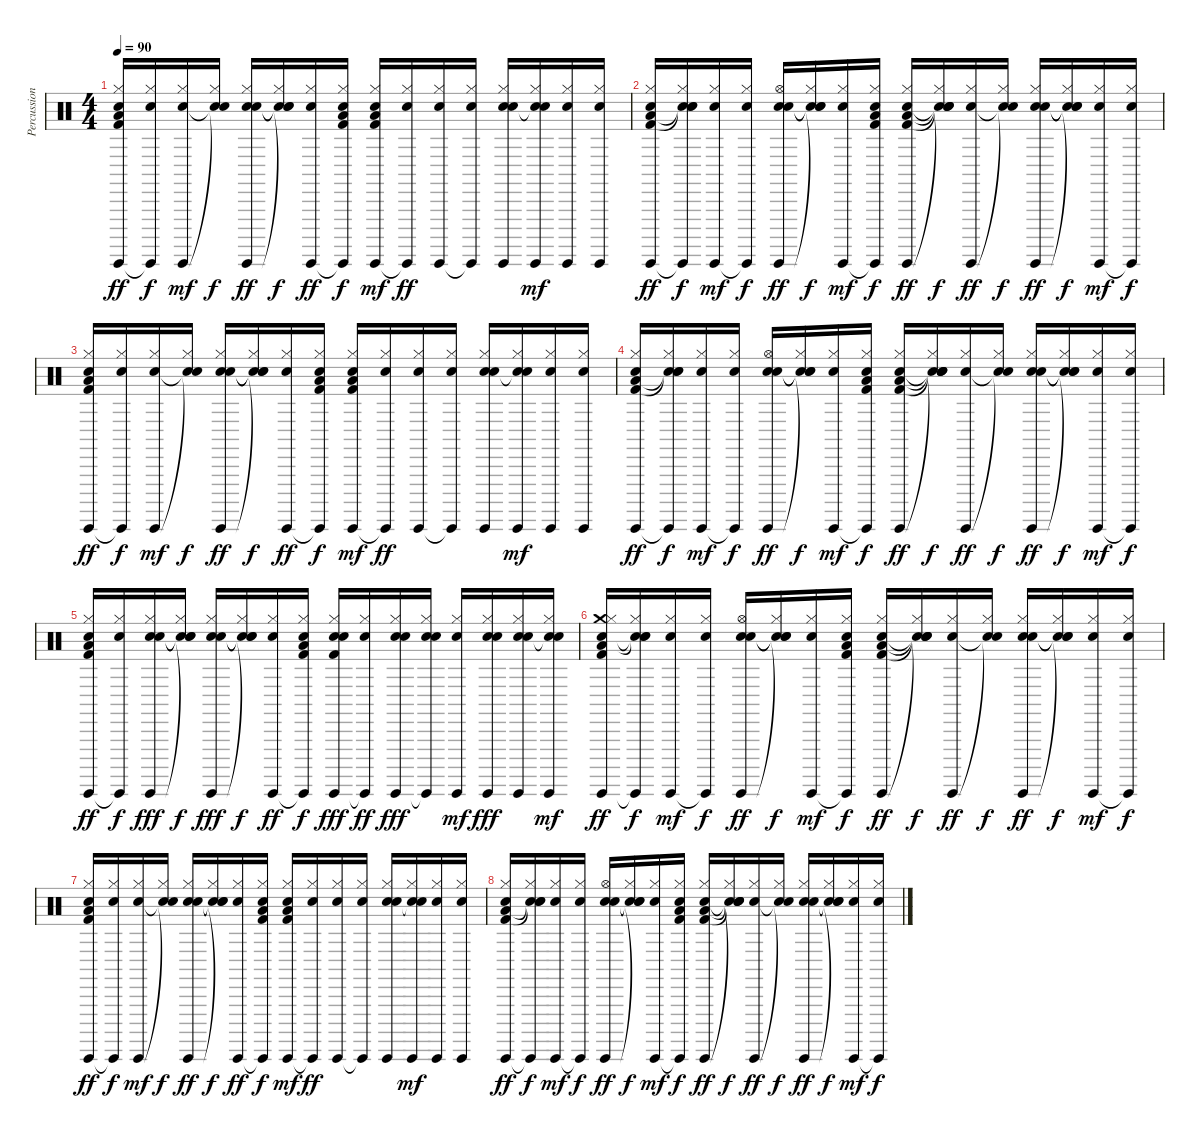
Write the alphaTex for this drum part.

\track ("Percussion" "Percussion") {instrument percussion}
\staff {score}
\articulation defaults
\ts (4 4)
\tempo 90
\clef neutral
\ks c
("Guiro (hit)" "Hi-Hat (closed)" "Hand Clap (hit)" "Low Floor Tom (hit)" "Kick (hit) 2").16{dy ff} ("Guiro (hit)"{t} "Hi-Hat (closed)" "Hand Clap (hit)").16{dy f} ("Guiro (hit)" "Hi-Hat (closed)" "Hand Clap (hit)").16{dy mf} ("Snare (hit)"{t} "Hi-Hat (closed)" "Snare (hit)"{t}).16{dy f} ("Guiro (hit)" "Hi-Hat (closed)" "Hand Clap (hit)" "Snare (hit) 2").16{dy ff} ("Snare (hit)"{t} "Hi-Hat (closed)" "Snare (hit)"{t} "Snare (hit)"{t}).16{dy f} ("Guiro (hit)" "Hi-Hat (closed)" "Hand Clap (hit)").16{dy ff} ("Guiro (hit)"{t} "Hi-Hat (closed)" "Hand Clap (hit)" "Low Floor Tom (hit)" "Kick (hit) 2").16{dy f} ("Guiro (hit)" "Hi-Hat (closed)" "Hand Clap (hit)" "Low Floor Tom (hit)" "Kick (hit) 2").16{dy mf} ("Guiro (hit)"{t} "Hi-Hat (closed)" "Hand Clap (hit)").16{dy ff} ("Guiro (hit)" "Hi-Hat (closed)" "Hand Clap (hit)").16 ("Guiro (hit)"{t} "Hi-Hat (closed)" "Hand Clap (hit)").16 ("Guiro (hit)" "Hi-Hat (closed)" "Hand Clap (hit)" "Snare (hit) 2").16 ("Guiro (hit)" "Hi-Hat (closed)" "Hand Clap (hit)" "Snare (hit)"{t}).16{dy mf} ("Guiro (hit)" "Hi-Hat (closed)" "Hand Clap (hit)").16 ("Guiro (hit)" "Hi-Hat (closed)" "Hand Clap (hit)").16 |
("Guiro (hit)" "Hi-Hat (closed)" "Hand Clap (hit)" "Low Floor Tom (hit)" "Kick (hit) 2").16{dy ff} ("Guiro (hit)"{t} "Hi-Hat (closed)" "Hand Clap (hit)" "Snare (hit)"{t} "Snare (hit)"{t}).16{dy f} ("Guiro (hit)" "Hi-Hat (closed)" "Hand Clap (hit)").16{dy mf} ("Guiro (hit)"{t} "Hi-Hat (closed)" "Hand Clap (hit)").16{dy f} ("Guiro (hit)" "Hi-Hat (open)" "Hand Clap (hit)" "Snare (hit) 2").16{dy ff} ("Snare (hit)"{t} "Hi-Hat (closed)" "Snare (hit)"{t} "Snare (hit)"{t}).16{dy f} ("Guiro (hit)" "Hi-Hat (closed)" "Hand Clap (hit)").16{dy mf} ("Guiro (hit)"{t} "Hi-Hat (closed)" "Hand Clap (hit)" "Low Floor Tom (hit)" "Kick (hit) 2").16{dy f} ("Guiro (hit)" "Hi-Hat (closed)" "Hand Clap (hit)" "Low Floor Tom (hit)" "Kick (hit) 2").16{dy ff} ("Snare (hit)"{t} "Hi-Hat (closed)" "Snare (hit)"{t} "Snare (hit)"{t} "Snare (hit)"{t}).16{dy f} ("Guiro (hit)" "Hi-Hat (closed)" "Hand Clap (hit)").16{dy ff} ("Snare (hit)"{t} "Hi-Hat (closed)" "Snare (hit)"{t}).16{dy f} ("Guiro (hit)" "Hi-Hat (closed)" "Hand Clap (hit)" "Snare (hit) 2").16{dy ff} ("Snare (hit)"{t} "Hi-Hat (closed)" "Snare (hit)"{t} "Snare (hit)"{t}).16{dy f} ("Guiro (hit)" "Hi-Hat (closed)" "Hand Clap (hit)").16{dy mf} ("Guiro (hit)"{t} "Hi-Hat (closed)" "Hand Clap (hit)").16{dy f} |
("Guiro (hit)" "Hi-Hat (closed)" "Hand Clap (hit)" "Low Floor Tom (hit)" "Kick (hit) 2").16{dy ff} ("Guiro (hit)"{t} "Hi-Hat (closed)" "Hand Clap (hit)").16{dy f} ("Guiro (hit)" "Hi-Hat (closed)" "Hand Clap (hit)").16{dy mf} ("Snare (hit)"{t} "Hi-Hat (closed)" "Snare (hit)"{t}).16{dy f} ("Guiro (hit)" "Hi-Hat (closed)" "Hand Clap (hit)" "Snare (hit) 2").16{dy ff} ("Snare (hit)"{t} "Hi-Hat (closed)" "Snare (hit)"{t} "Snare (hit)"{t}).16{dy f} ("Guiro (hit)" "Hi-Hat (closed)" "Hand Clap (hit)").16{dy ff} ("Guiro (hit)"{t} "Hi-Hat (closed)" "Hand Clap (hit)" "Low Floor Tom (hit)" "Kick (hit) 2").16{dy f} ("Guiro (hit)" "Hi-Hat (closed)" "Hand Clap (hit)" "Low Floor Tom (hit)" "Kick (hit) 2").16{dy mf} ("Guiro (hit)"{t} "Hi-Hat (closed)" "Hand Clap (hit)").16{dy ff} ("Guiro (hit)" "Hi-Hat (closed)" "Hand Clap (hit)").16 ("Guiro (hit)"{t} "Hi-Hat (closed)" "Hand Clap (hit)").16 ("Guiro (hit)" "Hi-Hat (closed)" "Hand Clap (hit)" "Snare (hit) 2").16 ("Guiro (hit)" "Hi-Hat (closed)" "Hand Clap (hit)" "Snare (hit)"{t}).16{dy mf} ("Guiro (hit)" "Hi-Hat (closed)" "Hand Clap (hit)").16 ("Guiro (hit)" "Hi-Hat (closed)" "Hand Clap (hit)").16 |
("Guiro (hit)" "Hi-Hat (closed)" "Hand Clap (hit)" "Low Floor Tom (hit)" "Kick (hit) 2").16{dy ff} ("Guiro (hit)"{t} "Hi-Hat (closed)" "Hand Clap (hit)" "Snare (hit)"{t} "Snare (hit)"{t}).16{dy f} ("Guiro (hit)" "Hi-Hat (closed)" "Hand Clap (hit)").16{dy mf} ("Guiro (hit)"{t} "Hi-Hat (closed)" "Hand Clap (hit)").16{dy f} ("Guiro (hit)" "Hi-Hat (open)" "Hand Clap (hit)" "Snare (hit) 2").16{dy ff} ("Snare (hit)"{t} "Hi-Hat (closed)" "Snare (hit)"{t} "Snare (hit)"{t}).16{dy f} ("Guiro (hit)" "Hi-Hat (closed)" "Hand Clap (hit)").16{dy mf} ("Guiro (hit)"{t} "Hi-Hat (closed)" "Hand Clap (hit)" "Low Floor Tom (hit)" "Kick (hit) 2").16{dy f} ("Guiro (hit)" "Hi-Hat (closed)" "Hand Clap (hit)" "Low Floor Tom (hit)" "Kick (hit) 2").16{dy ff} ("Snare (hit)"{t} "Hi-Hat (closed)" "Snare (hit)"{t} "Snare (hit)"{t} "Snare (hit)"{t}).16{dy f} ("Guiro (hit)" "Hi-Hat (closed)" "Hand Clap (hit)").16{dy ff} ("Snare (hit)"{t} "Hi-Hat (closed)" "Snare (hit)"{t}).16{dy f} ("Guiro (hit)" "Hi-Hat (closed)" "Hand Clap (hit)" "Snare (hit) 2").16{dy ff} ("Snare (hit)"{t} "Hi-Hat (closed)" "Snare (hit)"{t} "Snare (hit)"{t}).16{dy f} ("Guiro (hit)" "Hi-Hat (closed)" "Hand Clap (hit)").16{dy mf} ("Guiro (hit)"{t} "Hi-Hat (closed)" "Hand Clap (hit)").16{dy f} |
("Guiro (hit)" "Hi-Hat (closed)" "Hand Clap (hit)" "Low Floor Tom (hit)" "Kick (hit) 2").16{dy ff} ("Guiro (hit)"{t} "Hi-Hat (closed)" "Hand Clap (hit)").16{dy f} ("Guiro (hit)" "Hi-Hat (closed)" "Hand Clap (hit)" "Snare (hit) 2").16{dy fff} ("Snare (hit)"{t} "Hi-Hat (closed)" "Snare (hit)"{t} "Snare (hit)"{t}).16{dy f} ("Guiro (hit)" "Hi-Hat (closed)" "Hand Clap (hit)" "Snare (hit) 2").16{dy fff} ("Snare (hit)"{t} "Hi-Hat (closed)" "Snare (hit)"{t} "Snare (hit)"{t}).16{dy f} ("Guiro (hit)" "Hi-Hat (closed)" "Hand Clap (hit)").16{dy ff} ("Guiro (hit)"{t} "Hi-Hat (closed)" "Hand Clap (hit)" "Low Floor Tom (hit)" "Kick (hit) 2").16{dy f} ("Guiro (hit)" "Hi-Hat (closed)" "Hand Clap (hit)" "Snare (hit) 2" "Kick (hit) 2").16{dy fff} ("Guiro (hit)"{t} "Hi-Hat (closed)" "Hand Clap (hit)").16{dy ff} ("Guiro (hit)" "Hi-Hat (closed)" "Hand Clap (hit)" "Snare (hit) 2").16{dy fff} ("Guiro (hit)"{t} "Hi-Hat (closed)" "Hand Clap (hit)" "Snare (hit) 2").16 ("Guiro (hit)" "Hi-Hat (closed)" "Hand Clap (hit)").16{dy mf} ("Guiro (hit)" "Hi-Hat (closed)" "Hand Clap (hit)" "Snare (hit) 2").16{dy fff} ("Guiro (hit)" "Hi-Hat (closed)" "Hand Clap (hit)" "Snare (hit) 2").16 ("Guiro (hit)" "Hi-Hat (closed)" "Hand Clap (hit)" "Snare (hit)"{t}).16{dy mf} |
("Guiro (hit)" "Crash medium (hit)" "Hi-Hat (closed)" "Hand Clap (hit)" "Low Floor Tom (hit)" "Kick (hit) 2").16{dy ff} ("Guiro (hit)"{t} "Hi-Hat (closed)" "Hand Clap (hit)" "Snare (hit)"{t} "Snare (hit)"{t}).16{dy f} ("Guiro (hit)" "Hi-Hat (closed)" "Hand Clap (hit)").16{dy mf} ("Guiro (hit)"{t} "Hi-Hat (closed)" "Hand Clap (hit)").16{dy f} ("Guiro (hit)" "Hi-Hat (open)" "Hand Clap (hit)" "Snare (hit) 2").16{dy ff} ("Snare (hit)"{t} "Hi-Hat (closed)" "Snare (hit)"{t} "Snare (hit)"{t}).16{dy f} ("Guiro (hit)" "Hi-Hat (closed)" "Hand Clap (hit)").16{dy mf} ("Guiro (hit)"{t} "Hi-Hat (closed)" "Hand Clap (hit)" "Low Floor Tom (hit)" "Kick (hit) 2").16{dy f} ("Guiro (hit)" "Hi-Hat (closed)" "Hand Clap (hit)" "Low Floor Tom (hit)" "Kick (hit) 2").16{dy ff} ("Snare (hit)"{t} "Hi-Hat (closed)" "Snare (hit)"{t} "Snare (hit)"{t} "Snare (hit)"{t}).16{dy f} ("Guiro (hit)" "Hi-Hat (closed)" "Hand Clap (hit)").16{dy ff} ("Snare (hit)"{t} "Hi-Hat (closed)" "Snare (hit)"{t}).16{dy f} ("Guiro (hit)" "Hi-Hat (closed)" "Hand Clap (hit)" "Snare (hit) 2").16{dy ff} ("Snare (hit)"{t} "Hi-Hat (closed)" "Snare (hit)"{t} "Snare (hit)"{t}).16{dy f} ("Guiro (hit)" "Hi-Hat (closed)" "Hand Clap (hit)").16{dy mf} ("Guiro (hit)"{t} "Hi-Hat (closed)" "Hand Clap (hit)").16{dy f} |
("Guiro (hit)" "Hi-Hat (closed)" "Hand Clap (hit)" "Low Floor Tom (hit)" "Kick (hit) 2").16{dy ff} ("Guiro (hit)"{t} "Hi-Hat (closed)" "Hand Clap (hit)").16{dy f} ("Guiro (hit)" "Hi-Hat (closed)" "Hand Clap (hit)").16{dy mf} ("Snare (hit)"{t} "Hi-Hat (closed)" "Snare (hit)"{t}).16{dy f} ("Guiro (hit)" "Hi-Hat (closed)" "Hand Clap (hit)" "Snare (hit) 2").16{dy ff} ("Snare (hit)"{t} "Hi-Hat (closed)" "Snare (hit)"{t} "Snare (hit)"{t}).16{dy f} ("Guiro (hit)" "Hi-Hat (closed)" "Hand Clap (hit)").16{dy ff} ("Guiro (hit)"{t} "Hi-Hat (closed)" "Hand Clap (hit)" "Low Floor Tom (hit)" "Kick (hit) 2").16{dy f} ("Guiro (hit)" "Hi-Hat (closed)" "Hand Clap (hit)" "Low Floor Tom (hit)" "Kick (hit) 2").16{dy mf} ("Guiro (hit)"{t} "Hi-Hat (closed)" "Hand Clap (hit)").16{dy ff} ("Guiro (hit)" "Hi-Hat (closed)" "Hand Clap (hit)").16 ("Guiro (hit)"{t} "Hi-Hat (closed)" "Hand Clap (hit)").16 ("Guiro (hit)" "Hi-Hat (closed)" "Hand Clap (hit)" "Snare (hit) 2").16 ("Guiro (hit)" "Hi-Hat (closed)" "Hand Clap (hit)" "Snare (hit)"{t}).16{dy mf} ("Guiro (hit)" "Hi-Hat (closed)" "Hand Clap (hit)").16 ("Guiro (hit)" "Hi-Hat (closed)" "Hand Clap (hit)").16 |
("Guiro (hit)" "Hi-Hat (closed)" "Hand Clap (hit)" "Low Floor Tom (hit)" "Kick (hit) 2").16{dy ff} ("Guiro (hit)"{t} "Hi-Hat (closed)" "Hand Clap (hit)" "Snare (hit)"{t} "Snare (hit)"{t}).16{dy f} ("Guiro (hit)" "Hi-Hat (closed)" "Hand Clap (hit)").16{dy mf} ("Guiro (hit)"{t} "Hi-Hat (closed)" "Hand Clap (hit)").16{dy f} ("Guiro (hit)" "Hi-Hat (open)" "Hand Clap (hit)" "Snare (hit) 2").16{dy ff} ("Snare (hit)"{t} "Hi-Hat (closed)" "Snare (hit)"{t} "Snare (hit)"{t}).16{dy f} ("Guiro (hit)" "Hi-Hat (closed)" "Hand Clap (hit)").16{dy mf} ("Guiro (hit)"{t} "Hi-Hat (closed)" "Hand Clap (hit)" "Low Floor Tom (hit)" "Kick (hit) 2").16{dy f} ("Guiro (hit)" "Hi-Hat (closed)" "Hand Clap (hit)" "Low Floor Tom (hit)" "Kick (hit) 2").16{dy ff} ("Snare (hit)"{t} "Hi-Hat (closed)" "Snare (hit)"{t} "Snare (hit)"{t} "Snare (hit)"{t}).16{dy f} ("Guiro (hit)" "Hi-Hat (closed)" "Hand Clap (hit)").16{dy ff} ("Snare (hit)"{t} "Hi-Hat (closed)" "Snare (hit)"{t}).16{dy f} ("Guiro (hit)" "Hi-Hat (closed)" "Hand Clap (hit)" "Snare (hit) 2").16{dy ff} ("Snare (hit)"{t} "Hi-Hat (closed)" "Snare (hit)"{t} "Snare (hit)"{t}).16{dy f} ("Guiro (hit)" "Hi-Hat (closed)" "Hand Clap (hit)").16{dy mf} ("Guiro (hit)"{t} "Hi-Hat (closed)" "Hand Clap (hit)").16{dy f}
